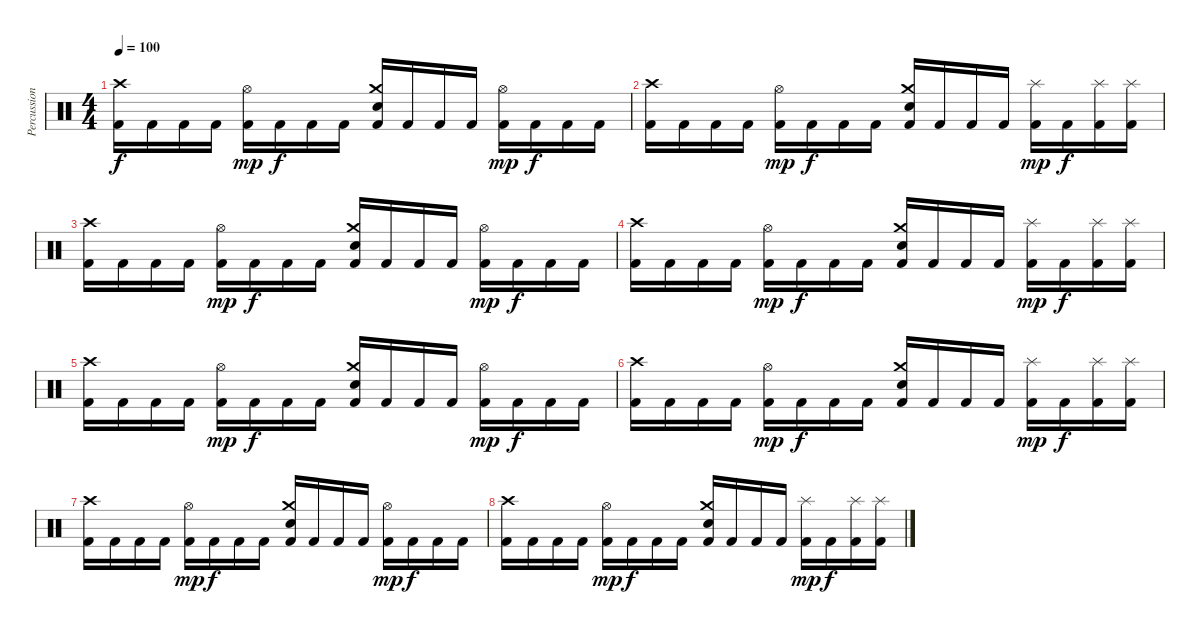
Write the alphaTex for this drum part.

\track ("Percussion" "Percussion") {instrument percussion}
\staff {score}
\articulation defaults
\ts (4 4)
\tempo 100
\clef neutral
\ks c
("Crash high (hit)" "Kick (hit) 2").16{dy f} "Kick (hit) 2".16 "Kick (hit) 2".16 "Kick (hit) 2".16 ("Hi-Hat (open)" "Kick (hit) 2").16{dy mp} "Kick (hit) 2".16{dy f} "Kick (hit) 2".16 "Kick (hit) 2".16 ("Crash medium (hit)" "Electric Snare (hit)" "Kick (hit) 2").16 "Kick (hit) 2".16 "Kick (hit) 2".16 "Kick (hit) 2".16 ("Hi-Hat (open)" "Kick (hit) 2").16{dy mp} "Kick (hit) 2".16{dy f} "Kick (hit) 2".16 "Kick (hit) 2".16 |
("Crash high (hit)" "Kick (hit) 2").16 "Kick (hit) 2".16 "Kick (hit) 2".16 "Kick (hit) 2".16 ("Hi-Hat (open)" "Kick (hit) 2").16{dy mp} "Kick (hit) 2".16{dy f} "Kick (hit) 2".16 "Kick (hit) 2".16 ("Crash medium (hit)" "Electric Snare (hit)" "Kick (hit) 2").16 "Kick (hit) 2".16 "Kick (hit) 2".16 "Kick (hit) 2".16 ("Splash (hit)" "Kick (hit) 2").16{dy mp} "Kick (hit) 2".16{dy f} ("Splash (hit)" "Kick (hit) 2").16 ("Splash (hit)" "Kick (hit) 2").16 |
("Crash high (hit)" "Kick (hit) 2").16 "Kick (hit) 2".16 "Kick (hit) 2".16 "Kick (hit) 2".16 ("Hi-Hat (open)" "Kick (hit) 2").16{dy mp} "Kick (hit) 2".16{dy f} "Kick (hit) 2".16 "Kick (hit) 2".16 ("Crash medium (hit)" "Electric Snare (hit)" "Kick (hit) 2").16 "Kick (hit) 2".16 "Kick (hit) 2".16 "Kick (hit) 2".16 ("Hi-Hat (open)" "Kick (hit) 2").16{dy mp} "Kick (hit) 2".16{dy f} "Kick (hit) 2".16 "Kick (hit) 2".16 |
("Crash high (hit)" "Kick (hit) 2").16 "Kick (hit) 2".16 "Kick (hit) 2".16 "Kick (hit) 2".16 ("Hi-Hat (open)" "Kick (hit) 2").16{dy mp} "Kick (hit) 2".16{dy f} "Kick (hit) 2".16 "Kick (hit) 2".16 ("Crash medium (hit)" "Electric Snare (hit)" "Kick (hit) 2").16 "Kick (hit) 2".16 "Kick (hit) 2".16 "Kick (hit) 2".16 ("Splash (hit)" "Kick (hit) 2").16{dy mp} "Kick (hit) 2".16{dy f} ("Splash (hit)" "Kick (hit) 2").16 ("Splash (hit)" "Kick (hit) 2").16 |
("Crash high (hit)" "Kick (hit) 2").16 "Kick (hit) 2".16 "Kick (hit) 2".16 "Kick (hit) 2".16 ("Hi-Hat (open)" "Kick (hit) 2").16{dy mp} "Kick (hit) 2".16{dy f} "Kick (hit) 2".16 "Kick (hit) 2".16 ("Crash medium (hit)" "Electric Snare (hit)" "Kick (hit) 2").16 "Kick (hit) 2".16 "Kick (hit) 2".16 "Kick (hit) 2".16 ("Hi-Hat (open)" "Kick (hit) 2").16{dy mp} "Kick (hit) 2".16{dy f} "Kick (hit) 2".16 "Kick (hit) 2".16 |
("Crash high (hit)" "Kick (hit) 2").16 "Kick (hit) 2".16 "Kick (hit) 2".16 "Kick (hit) 2".16 ("Hi-Hat (open)" "Kick (hit) 2").16{dy mp} "Kick (hit) 2".16{dy f} "Kick (hit) 2".16 "Kick (hit) 2".16 ("Crash medium (hit)" "Electric Snare (hit)" "Kick (hit) 2").16 "Kick (hit) 2".16 "Kick (hit) 2".16 "Kick (hit) 2".16 ("Splash (hit)" "Kick (hit) 2").16{dy mp} "Kick (hit) 2".16{dy f} ("Splash (hit)" "Kick (hit) 2").16 ("Splash (hit)" "Kick (hit) 2").16 |
("Crash high (hit)" "Kick (hit) 2").16 "Kick (hit) 2".16 "Kick (hit) 2".16 "Kick (hit) 2".16 ("Hi-Hat (open)" "Kick (hit) 2").16{dy mp} "Kick (hit) 2".16{dy f} "Kick (hit) 2".16 "Kick (hit) 2".16 ("Crash medium (hit)" "Electric Snare (hit)" "Kick (hit) 2").16 "Kick (hit) 2".16 "Kick (hit) 2".16 "Kick (hit) 2".16 ("Hi-Hat (open)" "Kick (hit) 2").16{dy mp} "Kick (hit) 2".16{dy f} "Kick (hit) 2".16 "Kick (hit) 2".16 |
("Crash high (hit)" "Kick (hit) 2").16 "Kick (hit) 2".16 "Kick (hit) 2".16 "Kick (hit) 2".16 ("Hi-Hat (open)" "Kick (hit) 2").16{dy mp} "Kick (hit) 2".16{dy f} "Kick (hit) 2".16 "Kick (hit) 2".16 ("Crash medium (hit)" "Electric Snare (hit)" "Kick (hit) 2").16 "Kick (hit) 2".16 "Kick (hit) 2".16 "Kick (hit) 2".16 ("Splash (hit)" "Kick (hit) 2").16{dy mp} "Kick (hit) 2".16{dy f} ("Splash (hit)" "Kick (hit) 2").16 ("Splash (hit)" "Kick (hit) 2").16
